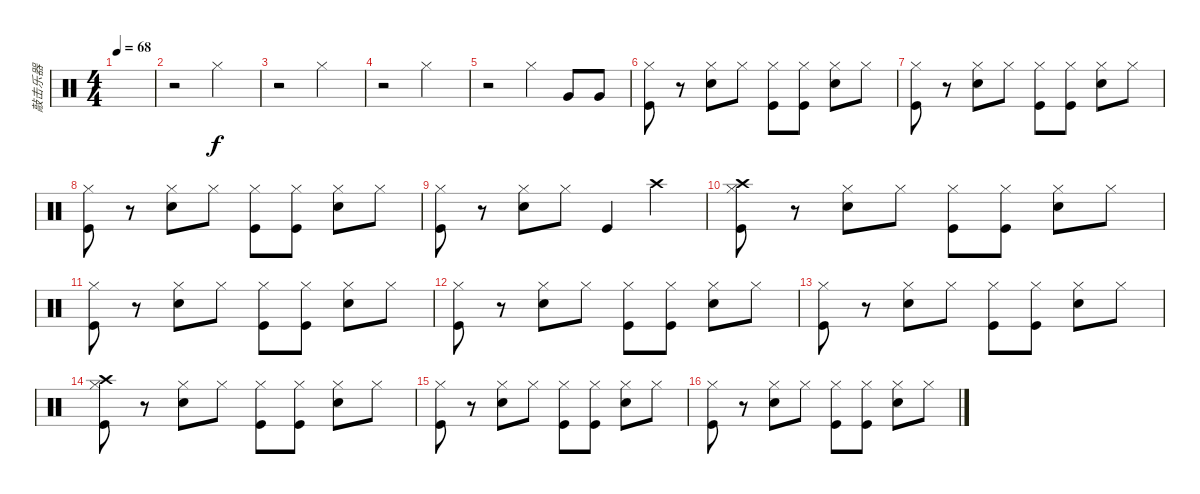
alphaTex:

\track ("敲击乐器" "敲击乐器") {instrument percussion}
\staff {score}
\articulation defaults
\ts (4 4)
\tempo 68
\clef neutral
\ks c
|
r.2 "Hi-Hat (closed)".2 |
r.2 "Hi-Hat (closed)".2 |
r.2 "Hi-Hat (closed)".2 |
r.2 "Hi-Hat (closed)".4 "Very Low Tom (hit)".8 "Very Low Tom (hit)".8 |
("Hi-Hat (closed)" "Kick (hit)").8 r.8 ("Hi-Hat (closed)" "Snare (hit) 2").8 "Hi-Hat (closed)".8 ("Hi-Hat (closed)" "Kick (hit)").8 ("Hi-Hat (closed)" "Kick (hit)").8 ("Hi-Hat (closed)" "Snare (hit) 2").8 "Hi-Hat (closed)".8 |
("Hi-Hat (closed)" "Kick (hit)").8 r.8 ("Hi-Hat (closed)" "Snare (hit) 2").8 "Hi-Hat (closed)".8 ("Hi-Hat (closed)" "Kick (hit)").8 ("Hi-Hat (closed)" "Kick (hit)").8 ("Hi-Hat (closed)" "Snare (hit) 2").8 "Hi-Hat (closed)".8 |
("Hi-Hat (closed)" "Kick (hit)").8 r.8 ("Hi-Hat (closed)" "Snare (hit) 2").8 "Hi-Hat (closed)".8 ("Hi-Hat (closed)" "Kick (hit)").8 ("Hi-Hat (closed)" "Kick (hit)").8 ("Hi-Hat (closed)" "Snare (hit) 2").8 "Hi-Hat (closed)".8 |
("Hi-Hat (closed)" "Kick (hit)").8 r.8 ("Hi-Hat (closed)" "Snare (hit) 2").8 "Hi-Hat (closed)".8 "Kick (hit)".4 "Crash high (hit)".4 |
("Hi-Hat (closed)" "Crash high (hit)" "Kick (hit)").8 r.8 ("Hi-Hat (closed)" "Snare (hit) 2").8 "Hi-Hat (closed)".8 ("Hi-Hat (closed)" "Kick (hit)").8 ("Hi-Hat (closed)" "Kick (hit)").8 ("Hi-Hat (closed)" "Snare (hit) 2").8 "Hi-Hat (closed)".8 |
("Hi-Hat (closed)" "Kick (hit)").8 r.8 ("Hi-Hat (closed)" "Snare (hit) 2").8 "Hi-Hat (closed)".8 ("Hi-Hat (closed)" "Kick (hit)").8 ("Hi-Hat (closed)" "Kick (hit)").8 ("Hi-Hat (closed)" "Snare (hit) 2").8 "Hi-Hat (closed)".8 |
("Hi-Hat (closed)" "Kick (hit)").8 r.8 ("Hi-Hat (closed)" "Snare (hit) 2").8 "Hi-Hat (closed)".8 ("Hi-Hat (closed)" "Kick (hit)").8 ("Hi-Hat (closed)" "Kick (hit)").8 ("Hi-Hat (closed)" "Snare (hit) 2").8 "Hi-Hat (closed)".8 |
("Hi-Hat (closed)" "Kick (hit)").8 r.8 ("Hi-Hat (closed)" "Snare (hit) 2").8 "Hi-Hat (closed)".8 ("Hi-Hat (closed)" "Kick (hit)").8 ("Hi-Hat (closed)" "Kick (hit)").8 ("Hi-Hat (closed)" "Snare (hit) 2").8 "Hi-Hat (closed)".8 |
("Hi-Hat (closed)" "Crash high (hit)" "Kick (hit)").8 r.8 ("Hi-Hat (closed)" "Snare (hit) 2").8 "Hi-Hat (closed)".8 ("Hi-Hat (closed)" "Kick (hit)").8 ("Hi-Hat (closed)" "Kick (hit)").8 ("Hi-Hat (closed)" "Snare (hit) 2").8 "Hi-Hat (closed)".8 |
("Hi-Hat (closed)" "Kick (hit)").8 r.8 ("Hi-Hat (closed)" "Snare (hit) 2").8 "Hi-Hat (closed)".8 ("Hi-Hat (closed)" "Kick (hit)").8 ("Hi-Hat (closed)" "Kick (hit)").8 ("Hi-Hat (closed)" "Snare (hit) 2").8 "Hi-Hat (closed)".8 |
("Hi-Hat (closed)" "Kick (hit)").8 r.8 ("Hi-Hat (closed)" "Snare (hit) 2").8 "Hi-Hat (closed)".8 ("Hi-Hat (closed)" "Kick (hit)").8 ("Hi-Hat (closed)" "Kick (hit)").8 ("Hi-Hat (closed)" "Snare (hit) 2").8 "Hi-Hat (closed)".8
